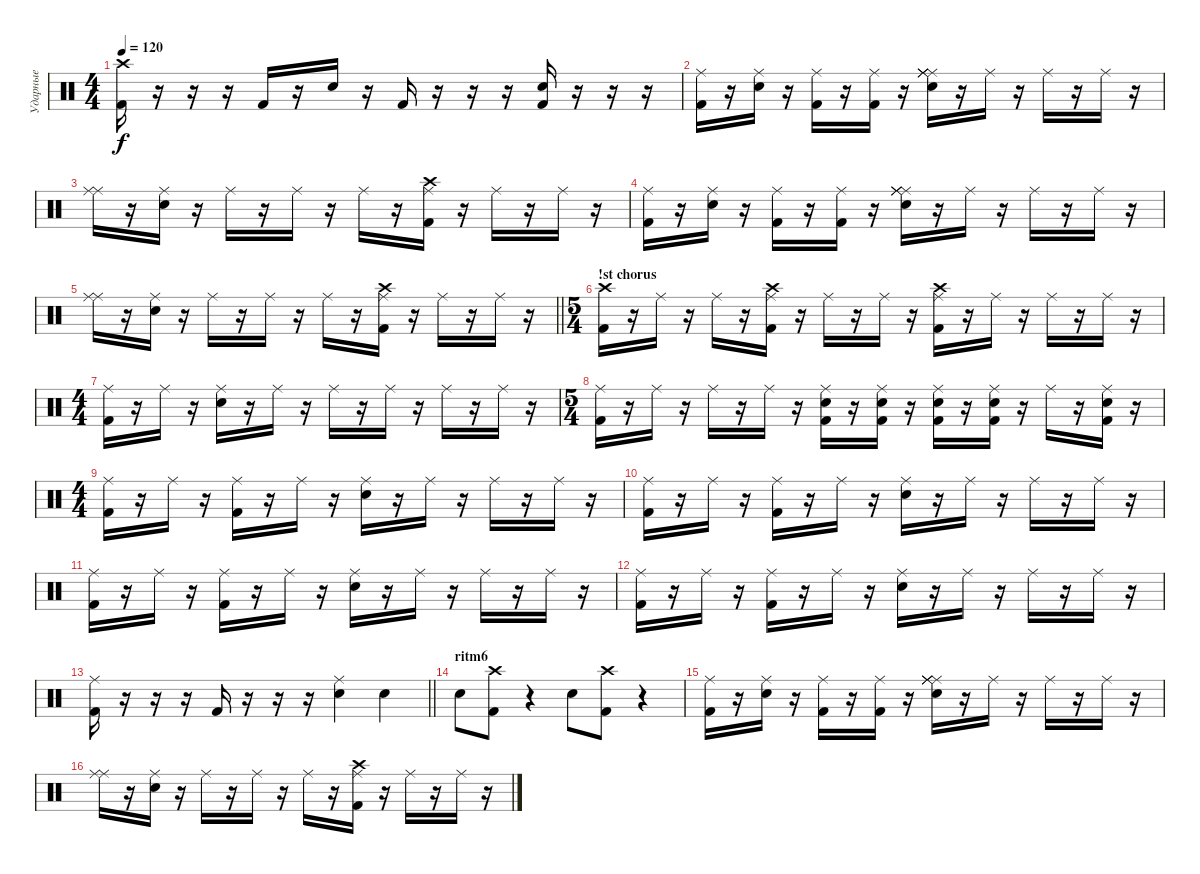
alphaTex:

\track ("Ударные" "Ударные") {instrument percussion}
\staff {score}
\articulation defaults
\ts (4 4)
\tempo 120
\clef neutral
\ks c
("Kick (hit) 2" "Crash high (hit)").16{dy f} r.16 r.16 r.16 "Kick (hit) 2".16 r.16 "Snare (hit) 2".16 r.16 "Kick (hit) 2".16 r.16 r.16 r.16 ("Kick (hit) 2" "Snare (hit) 2").16 r.16 r.16 r.16 |
("Ride (middle)" "Kick (hit) 2").16 r.16 ("Ride (middle)" "Snare (hit) 2").16 r.16 ("Ride (middle)" "Kick (hit) 2").16 r.16 ("Ride (middle)" "Kick (hit) 2").16 r.16 ("Ride (middle)" "Ride (middle)" "Ride (middle)" "Ride (middle)" "Snare (hit) 2").16 r.16 "Ride (middle)".16 r.16 "Ride (middle)".16 r.16 "Ride (middle)".16 r.16 |
("Ride (middle)" "Ride (middle)").16 r.16 ("Ride (middle)" "Snare (hit) 2").16 r.16 "Ride (middle)".16 r.16 "Ride (middle)".16 r.16 "Ride (middle)".16 r.16 ("Ride (middle)" "Kick (hit) 2" "Crash high (hit)").16 r.16 "Ride (middle)".16 r.16 "Ride (middle)".16 r.16 |
("Ride (middle)" "Kick (hit) 2").16 r.16 ("Ride (middle)" "Snare (hit) 2").16 r.16 ("Ride (middle)" "Kick (hit) 2").16 r.16 ("Ride (middle)" "Kick (hit) 2").16 r.16 ("Ride (middle)" "Ride (middle)" "Ride (middle)" "Ride (middle)" "Snare (hit) 2").16 r.16 "Ride (middle)".16 r.16 "Ride (middle)".16 r.16 "Ride (middle)".16 r.16 |
\barLineRight lightlight
("Ride (middle)" "Ride (middle)").16 r.16 ("Ride (middle)" "Snare (hit) 2").16 r.16 "Ride (middle)".16 r.16 "Ride (middle)".16 r.16 "Ride (middle)".16 r.16 ("Ride (middle)" "Kick (hit) 2" "Crash high (hit)").16 r.16 "Ride (middle)".16 r.16 "Ride (middle)".16 r.16 |
\ts (5 4)
\section ("" "!st chorus")
("Kick (hit) 2" "Crash high (hit)").16 r.16 "Ride (middle)".16 r.16 "Ride (middle)".16 r.16 ("Crash high (hit)" "Kick (hit) 2" "Ride (middle)").16 r.16 "Ride (middle)".16 r.16 "Ride (middle)".16 r.16 ("Crash high (hit)" "Kick (hit) 2" "Ride (middle)").16 r.16 "Ride (middle)".16 r.16 "Ride (middle)".16 r.16 "Ride (middle)".16 r.16 |
\ts (4 4)
("Kick (hit) 2" "Ride (middle)").16 r.16 "Ride (middle)".16 r.16 ("Snare (hit) 2" "Ride (middle)").16 r.16 "Ride (middle)".16 r.16 "Ride (middle)".16 r.16 "Ride (middle)".16 r.16 "Ride (middle)".16 r.16 "Ride (middle)".16 r.16 |
\ts (5 4)
("Kick (hit) 2" "Ride (middle)").16 r.16 "Ride (middle)".16 r.16 "Ride (middle)".16 r.16 "Ride (middle)".16 r.16 ("Kick (hit) 2" "Snare (hit) 2" "Ride (middle)").16 r.16 ("Kick (hit) 2" "Snare (hit) 2" "Ride (middle)").16 r.16 ("Kick (hit) 2" "Snare (hit) 2" "Ride (middle)").16 r.16 ("Kick (hit) 2" "Snare (hit) 2" "Ride (middle)").16 r.16 "Ride (middle)".16 r.16 ("Kick (hit) 2" "Snare (hit) 2" "Ride (middle)").16 r.16 |
\ts (4 4)
("Kick (hit) 2" "Ride (middle)").16 r.16 "Ride (middle)".16 r.16 ("Kick (hit) 2" "Ride (middle)").16 r.16 "Ride (middle)".16 r.16 ("Snare (hit) 2" "Ride (middle)").16 r.16 "Ride (middle)".16 r.16 "Ride (middle)".16 r.16 "Ride (middle)".16 r.16 |
("Kick (hit) 2" "Ride (middle)").16 r.16 "Ride (middle)".16 r.16 ("Kick (hit) 2" "Ride (middle)").16 r.16 "Ride (middle)".16 r.16 ("Snare (hit) 2" "Ride (middle)").16 r.16 "Ride (middle)".16 r.16 "Ride (middle)".16 r.16 "Ride (middle)".16 r.16 |
("Kick (hit) 2" "Ride (middle)").16 r.16 "Ride (middle)".16 r.16 ("Kick (hit) 2" "Ride (middle)").16 r.16 "Ride (middle)".16 r.16 ("Snare (hit) 2" "Ride (middle)").16 r.16 "Ride (middle)".16 r.16 "Ride (middle)".16 r.16 "Ride (middle)".16 r.16 |
("Kick (hit) 2" "Ride (middle)").16 r.16 "Ride (middle)".16 r.16 ("Kick (hit) 2" "Ride (middle)").16 r.16 "Ride (middle)".16 r.16 ("Snare (hit) 2" "Ride (middle)").16 r.16 "Ride (middle)".16 r.16 "Ride (middle)".16 r.16 "Ride (middle)".16 r.16 |
\barLineRight lightlight
("Kick (hit) 2" "Ride (middle)").16 r.16 r.16 r.16 "Kick (hit) 2".16 r.16 r.16 r.16 ("Ride (middle)" "Snare (hit) 2").4 "Snare (hit) 2".4 |
\section ("" "ritm6")
"Snare (hit) 2".8 ("Kick (hit) 2" "Crash high (hit)").8 r.4 "Snare (hit) 2".8 ("Kick (hit) 2" "Crash high (hit)").8 r.4 |
("Ride (middle)" "Kick (hit) 2").16 r.16 ("Ride (middle)" "Snare (hit) 2").16 r.16 ("Ride (middle)" "Kick (hit) 2").16 r.16 ("Ride (middle)" "Kick (hit) 2").16 r.16 ("Ride (middle)" "Ride (middle)" "Ride (middle)" "Ride (middle)" "Snare (hit) 2").16 r.16 "Ride (middle)".16 r.16 "Ride (middle)".16 r.16 "Ride (middle)".16 r.16 |
("Ride (middle)" "Ride (middle)").16 r.16 ("Ride (middle)" "Snare (hit) 2").16 r.16 "Ride (middle)".16 r.16 "Ride (middle)".16 r.16 "Ride (middle)".16 r.16 ("Ride (middle)" "Kick (hit) 2" "Crash high (hit)").16 r.16 "Ride (middle)".16 r.16 "Ride (middle)".16 r.16
